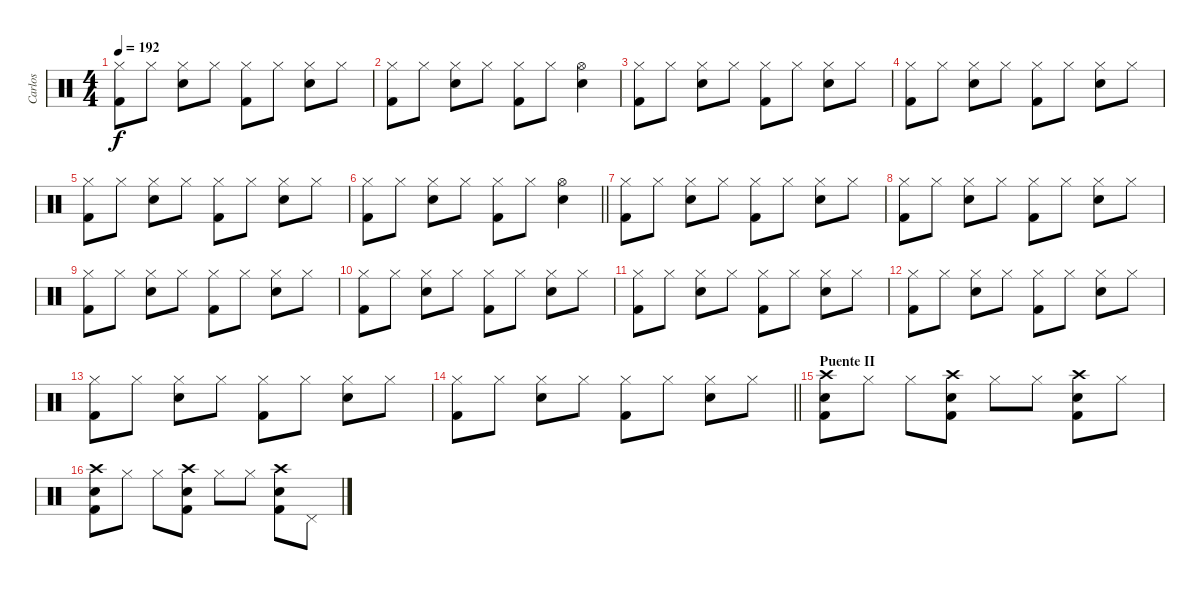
\track ("Carlos" "Carlos") {instrument percussion}
\staff {score}
\articulation defaults
\ts (4 4)
\tempo 192
\clef neutral
\ks c
("Hi-Hat (closed)" "Kick (hit) 2").8{dy f} "Hi-Hat (closed)".8 ("Hi-Hat (closed)" "Snare (hit) 2").8 "Hi-Hat (closed)".8 ("Hi-Hat (closed)" "Kick (hit) 2").8 "Hi-Hat (closed)".8 ("Hi-Hat (closed)" "Snare (hit) 2").8 "Hi-Hat (closed)".8 |
("Hi-Hat (closed)" "Kick (hit) 2").8 "Hi-Hat (closed)".8 ("Hi-Hat (closed)" "Snare (hit) 2").8 "Hi-Hat (closed)".8 ("Hi-Hat (closed)" "Kick (hit) 2").8 "Hi-Hat (closed)".8 ("Hi-Hat (open)" "Snare (hit) 2").4 |
("Hi-Hat (closed)" "Kick (hit) 2").8 "Hi-Hat (closed)".8 ("Hi-Hat (closed)" "Snare (hit) 2").8 "Hi-Hat (closed)".8 ("Hi-Hat (closed)" "Kick (hit) 2").8 "Hi-Hat (closed)".8 ("Hi-Hat (closed)" "Snare (hit) 2").8 "Hi-Hat (closed)".8 |
("Hi-Hat (closed)" "Kick (hit) 2").8 "Hi-Hat (closed)".8 ("Hi-Hat (closed)" "Snare (hit) 2").8 "Hi-Hat (closed)".8 ("Hi-Hat (closed)" "Kick (hit) 2").8 "Hi-Hat (closed)".8 ("Hi-Hat (closed)" "Snare (hit) 2").8 "Hi-Hat (closed)".8 |
("Hi-Hat (closed)" "Kick (hit) 2").8 "Hi-Hat (closed)".8 ("Hi-Hat (closed)" "Snare (hit) 2").8 "Hi-Hat (closed)".8 ("Hi-Hat (closed)" "Kick (hit) 2").8 "Hi-Hat (closed)".8 ("Hi-Hat (closed)" "Snare (hit) 2").8 "Hi-Hat (closed)".8 |
\barLineRight lightlight
("Hi-Hat (closed)" "Kick (hit) 2").8 "Hi-Hat (closed)".8 ("Hi-Hat (closed)" "Snare (hit) 2").8 "Hi-Hat (closed)".8 ("Hi-Hat (closed)" "Kick (hit) 2").8 "Hi-Hat (closed)".8 ("Hi-Hat (open)" "Snare (hit) 2").4 |
("Hi-Hat (closed)" "Kick (hit) 2").8 "Hi-Hat (closed)".8 ("Hi-Hat (closed)" "Snare (hit) 2").8 "Hi-Hat (closed)".8 ("Hi-Hat (closed)" "Kick (hit) 2").8 "Hi-Hat (closed)".8 ("Hi-Hat (closed)" "Snare (hit) 2").8 "Hi-Hat (closed)".8 |
("Hi-Hat (closed)" "Kick (hit) 2").8 "Hi-Hat (closed)".8 ("Hi-Hat (closed)" "Snare (hit) 2").8 "Hi-Hat (closed)".8 ("Hi-Hat (closed)" "Kick (hit) 2").8 "Hi-Hat (closed)".8 ("Hi-Hat (closed)" "Snare (hit) 2").8 "Hi-Hat (closed)".8 |
("Hi-Hat (closed)" "Kick (hit) 2").8 "Hi-Hat (closed)".8 ("Hi-Hat (closed)" "Snare (hit) 2").8 "Hi-Hat (closed)".8 ("Hi-Hat (closed)" "Kick (hit) 2").8 "Hi-Hat (closed)".8 ("Hi-Hat (closed)" "Snare (hit) 2").8 "Hi-Hat (closed)".8 |
("Hi-Hat (closed)" "Kick (hit) 2").8 "Hi-Hat (closed)".8 ("Hi-Hat (closed)" "Snare (hit) 2").8 "Hi-Hat (closed)".8 ("Hi-Hat (closed)" "Kick (hit) 2").8 "Hi-Hat (closed)".8 ("Hi-Hat (closed)" "Snare (hit) 2").8 "Hi-Hat (closed)".8 |
("Hi-Hat (closed)" "Kick (hit) 2").8 "Hi-Hat (closed)".8 ("Hi-Hat (closed)" "Snare (hit) 2").8 "Hi-Hat (closed)".8 ("Hi-Hat (closed)" "Kick (hit) 2").8 "Hi-Hat (closed)".8 ("Hi-Hat (closed)" "Snare (hit) 2").8 "Hi-Hat (closed)".8 |
("Hi-Hat (closed)" "Kick (hit) 2").8 "Hi-Hat (closed)".8 ("Hi-Hat (closed)" "Snare (hit) 2").8 "Hi-Hat (closed)".8 ("Hi-Hat (closed)" "Kick (hit) 2").8 "Hi-Hat (closed)".8 ("Hi-Hat (closed)" "Snare (hit) 2").8 "Hi-Hat (closed)".8 |
("Hi-Hat (closed)" "Kick (hit) 2").8 "Hi-Hat (closed)".8 ("Hi-Hat (closed)" "Snare (hit) 2").8 "Hi-Hat (closed)".8 ("Hi-Hat (closed)" "Kick (hit) 2").8 "Hi-Hat (closed)".8 ("Hi-Hat (closed)" "Snare (hit) 2").8 "Hi-Hat (closed)".8 |
\barLineRight lightlight
("Hi-Hat (closed)" "Kick (hit) 2").8 "Hi-Hat (closed)".8 ("Hi-Hat (closed)" "Snare (hit) 2").8 "Hi-Hat (closed)".8 ("Hi-Hat (closed)" "Kick (hit) 2").8 "Hi-Hat (closed)".8 ("Hi-Hat (closed)" "Snare (hit) 2").8 "Hi-Hat (closed)".8 |
\section ("" "Puente II")
("Crash high (hit)" "Kick (hit) 2" "Snare (hit) 2").8 "Hi-Hat (closed)".8 "Hi-Hat (closed)".8 ("Crash high (hit)" "Kick (hit) 2" "Snare (hit) 2").8 "Hi-Hat (closed)".8 "Hi-Hat (closed)".8 ("Crash high (hit)" "Kick (hit) 2" "Snare (hit) 2").8 "Hi-Hat (closed)".8 |
("Crash high (hit)" "Kick (hit) 2" "Snare (hit) 2").8 "Hi-Hat (closed)".8 "Hi-Hat (closed)".8 ("Crash high (hit)" "Kick (hit) 2" "Snare (hit) 2").8 "Hi-Hat (closed)".8 "Hi-Hat (closed)".8 ("Crash high (hit)" "Kick (hit) 2" "Snare (hit) 2").8 "Pedal Hi-Hat (hit)".8
